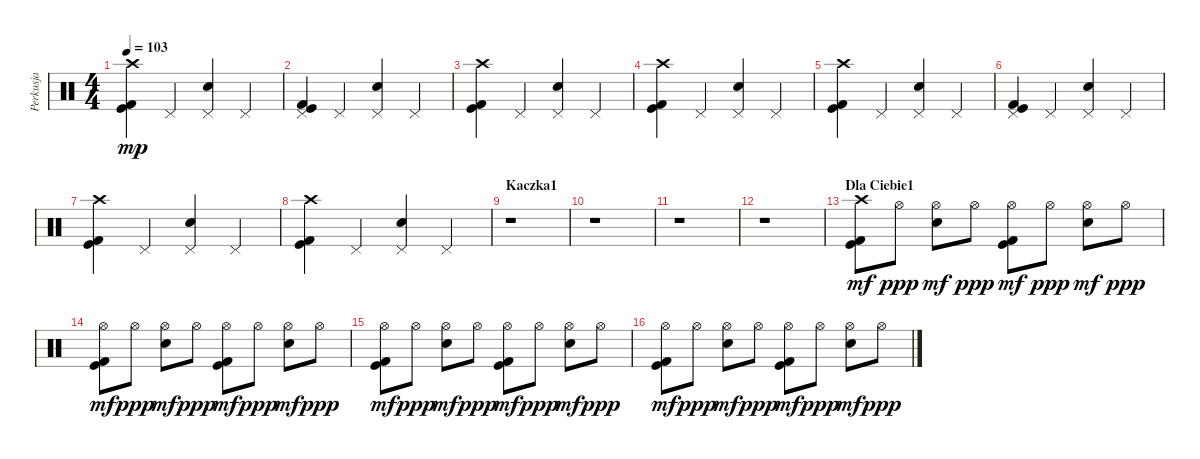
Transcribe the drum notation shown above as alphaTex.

\track ("Perkusja" "Perkusja") {instrument percussion}
\staff {score}
\articulation defaults
\ts (4 4)
\tempo 103
\clef neutral
\ks c
("Kick (hit) 2" "Kick (hit)" "Crash high (hit)").4{dy mp} "Pedal Hi-Hat (hit)".4 ("Pedal Hi-Hat (hit)" "Snare (hit) 2").4 "Pedal Hi-Hat (hit)".4 |
("Kick (hit) 2" "Kick (hit)" "Pedal Hi-Hat (hit)").4 "Pedal Hi-Hat (hit)".4 ("Pedal Hi-Hat (hit)" "Snare (hit) 2").4 "Pedal Hi-Hat (hit)".4 |
("Kick (hit) 2" "Kick (hit)" "Crash high (hit)").4 "Pedal Hi-Hat (hit)".4 ("Pedal Hi-Hat (hit)" "Snare (hit) 2").4 "Pedal Hi-Hat (hit)".4 |
("Kick (hit) 2" "Kick (hit)" "Crash high (hit)").4 "Pedal Hi-Hat (hit)".4 ("Pedal Hi-Hat (hit)" "Snare (hit) 2").4 "Pedal Hi-Hat (hit)".4 |
("Kick (hit) 2" "Kick (hit)" "Crash high (hit)").4 "Pedal Hi-Hat (hit)".4 ("Pedal Hi-Hat (hit)" "Snare (hit) 2").4 "Pedal Hi-Hat (hit)".4 |
("Kick (hit) 2" "Kick (hit)" "Pedal Hi-Hat (hit)").4 "Pedal Hi-Hat (hit)".4 ("Pedal Hi-Hat (hit)" "Snare (hit) 2").4 "Pedal Hi-Hat (hit)".4 |
("Kick (hit) 2" "Kick (hit)" "Crash high (hit)").4 "Pedal Hi-Hat (hit)".4 ("Pedal Hi-Hat (hit)" "Snare (hit) 2").4 "Pedal Hi-Hat (hit)".4 |
("Kick (hit) 2" "Kick (hit)" "Crash high (hit)").4 "Pedal Hi-Hat (hit)".4 ("Pedal Hi-Hat (hit)" "Snare (hit) 2").4 "Pedal Hi-Hat (hit)".4 |
\section ("" "Kaczka1")
r.1 |
r.1 |
r.1 |
r.1 |
\section ("" "Dla Ciebie1")
("Kick (hit) 2" "Kick (hit)" "Crash high (hit)").8{dy mf} "Hi-Hat (open)".8{dy ppp} ("Snare (hit) 2" "Hi-Hat (open)").8{dy mf} "Hi-Hat (open)".8{dy ppp} ("Kick (hit) 2" "Kick (hit)" "Hi-Hat (open)").8{dy mf} "Hi-Hat (open)".8{dy ppp} ("Snare (hit) 2" "Hi-Hat (open)").8{dy mf} "Hi-Hat (open)".8{dy ppp} |
("Kick (hit) 2" "Kick (hit)" "Hi-Hat (open)").8{dy mf} "Hi-Hat (open)".8{dy ppp} ("Snare (hit) 2" "Hi-Hat (open)").8{dy mf} "Hi-Hat (open)".8{dy ppp} ("Kick (hit) 2" "Kick (hit)" "Hi-Hat (open)").8{dy mf} "Hi-Hat (open)".8{dy ppp} ("Snare (hit) 2" "Hi-Hat (open)").8{dy mf} "Hi-Hat (open)".8{dy ppp} |
("Kick (hit) 2" "Kick (hit)" "Hi-Hat (open)").8{dy mf} "Hi-Hat (open)".8{dy ppp} ("Snare (hit) 2" "Hi-Hat (open)").8{dy mf} "Hi-Hat (open)".8{dy ppp} ("Kick (hit) 2" "Kick (hit)" "Hi-Hat (open)").8{dy mf} "Hi-Hat (open)".8{dy ppp} ("Snare (hit) 2" "Hi-Hat (open)").8{dy mf} "Hi-Hat (open)".8{dy ppp} |
("Kick (hit) 2" "Kick (hit)" "Hi-Hat (open)").8{dy mf} "Hi-Hat (open)".8{dy ppp} ("Snare (hit) 2" "Hi-Hat (open)").8{dy mf} "Hi-Hat (open)".8{dy ppp} ("Kick (hit) 2" "Kick (hit)" "Hi-Hat (open)").8{dy mf} "Hi-Hat (open)".8{dy ppp} ("Snare (hit) 2" "Hi-Hat (open)").8{dy mf} "Hi-Hat (open)".8{dy ppp}
